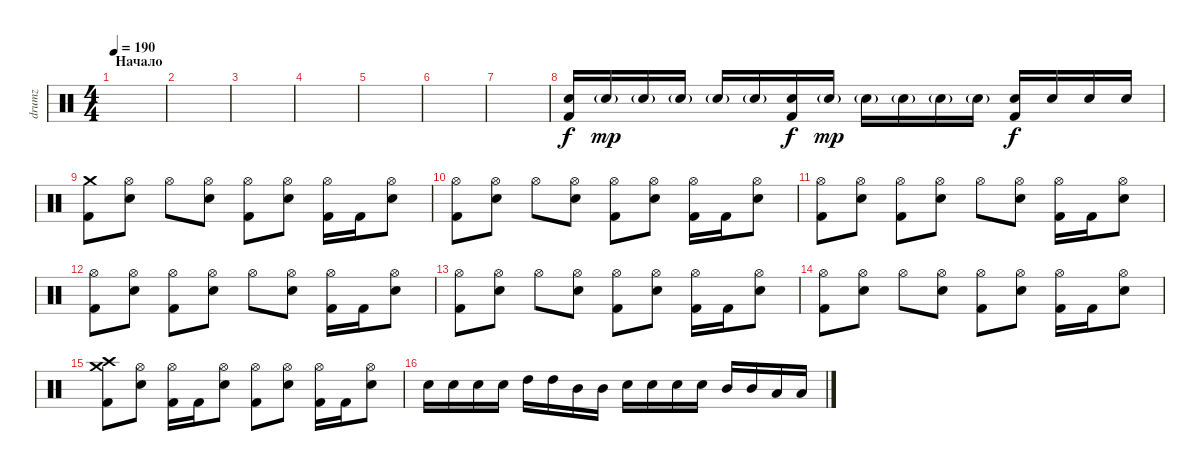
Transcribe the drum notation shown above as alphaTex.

\track ("drumz" "drumz") {instrument percussion}
\staff {score}
\articulation defaults
\ts (4 4)
\section ("" "Начало")
\tempo 190
\clef neutral
\ks c
|
|
|
|
|
|
|
("Electric Snare (hit)" "Kick (hit) 2").16 "Electric Snare (hit)"{g}.16{dy mp} "Electric Snare (hit)"{g}.16 "Electric Snare (hit)"{g}.16 "Electric Snare (hit)"{g}.16 "Electric Snare (hit)"{g}.16 ("Electric Snare (hit)" "Kick (hit) 2").16{dy f} "Electric Snare (hit)"{g}.16{dy mp} "Electric Snare (hit)"{g}.16 "Electric Snare (hit)"{g}.16 "Electric Snare (hit)"{g}.16 "Electric Snare (hit)"{g}.16 ("Electric Snare (hit)" "Kick (hit) 2").16{dy f} "Electric Snare (hit)".16 "Electric Snare (hit)".16 "Electric Snare (hit)".16 |
\section ("" "")
("Crash medium (hit)" "Kick (hit) 2").8 ("Hi-Hat (open)" "Electric Snare (hit)").8 "Hi-Hat (open)".8 ("Hi-Hat (open)" "Electric Snare (hit)").8 ("Hi-Hat (open)" "Kick (hit) 2").8 ("Hi-Hat (open)" "Electric Snare (hit)").8 ("Hi-Hat (open)" "Kick (hit) 2").16 "Kick (hit) 2".16 ("Hi-Hat (open)" "Electric Snare (hit)").8 |
("Hi-Hat (open)" "Kick (hit) 2").8 ("Hi-Hat (open)" "Electric Snare (hit)").8 "Hi-Hat (open)".8 ("Hi-Hat (open)" "Electric Snare (hit)").8 ("Hi-Hat (open)" "Kick (hit) 2").8 ("Hi-Hat (open)" "Electric Snare (hit)").8 ("Hi-Hat (open)" "Kick (hit) 2").16 "Kick (hit) 2".16 ("Hi-Hat (open)" "Electric Snare (hit)").8 |
("Hi-Hat (open)" "Kick (hit) 2").8 ("Hi-Hat (open)" "Electric Snare (hit)").8 ("Hi-Hat (open)" "Kick (hit) 2").8 ("Hi-Hat (open)" "Electric Snare (hit)").8 "Hi-Hat (open)".8 ("Hi-Hat (open)" "Electric Snare (hit)").8 ("Hi-Hat (open)" "Kick (hit) 2").16 "Kick (hit) 2".16 ("Hi-Hat (open)" "Electric Snare (hit)").8 |
("Hi-Hat (open)" "Kick (hit) 2").8 ("Hi-Hat (open)" "Electric Snare (hit)").8 ("Hi-Hat (open)" "Kick (hit) 2").8 ("Hi-Hat (open)" "Electric Snare (hit)").8 "Hi-Hat (open)".8 ("Hi-Hat (open)" "Electric Snare (hit)").8 ("Hi-Hat (open)" "Kick (hit) 2").16 "Kick (hit) 2".16 ("Hi-Hat (open)" "Electric Snare (hit)").8 |
("Hi-Hat (open)" "Kick (hit) 2").8 ("Hi-Hat (open)" "Electric Snare (hit)").8 "Hi-Hat (open)".8 ("Hi-Hat (open)" "Electric Snare (hit)").8 ("Hi-Hat (open)" "Kick (hit) 2").8 ("Hi-Hat (open)" "Electric Snare (hit)").8 ("Hi-Hat (open)" "Kick (hit) 2").16 "Kick (hit) 2".16 ("Hi-Hat (open)" "Electric Snare (hit)").8 |
("Hi-Hat (open)" "Kick (hit) 2").8 ("Hi-Hat (open)" "Electric Snare (hit)").8 "Hi-Hat (open)".8 ("Hi-Hat (open)" "Electric Snare (hit)").8 ("Hi-Hat (open)" "Kick (hit) 2").8 ("Hi-Hat (open)" "Electric Snare (hit)").8 ("Hi-Hat (open)" "Kick (hit) 2").16 "Kick (hit) 2".16 ("Hi-Hat (open)" "Electric Snare (hit)").8 |
("Crash medium (hit)" "Crash high (hit)" "Kick (hit) 2").8 ("Hi-Hat (open)" "Electric Snare (hit)").8 ("Hi-Hat (open)" "Kick (hit) 2").16 "Kick (hit) 2".16 ("Hi-Hat (open)" "Electric Snare (hit)").8 ("Hi-Hat (open)" "Kick (hit) 2").8 ("Hi-Hat (open)" "Electric Snare (hit)").8 ("Hi-Hat (open)" "Kick (hit) 2").16 "Kick (hit) 2".16 ("Hi-Hat (open)" "Electric Snare (hit)").8 |
"Electric Snare (hit)".16 "Electric Snare (hit)".16 "Electric Snare (hit)".16 "Electric Snare (hit)".16 "High Tom (hit)".16 "High Tom (hit)".16 "Mid Tom (hit)".16 "Mid Tom (hit)".16 "Electric Snare (hit)".16 "Electric Snare (hit)".16 "Electric Snare (hit)".16 "Electric Snare (hit)".16 "Mid Tom (hit)".16 "Mid Tom (hit)".16 "Low Tom (hit)".16 "Low Tom (hit)".16
